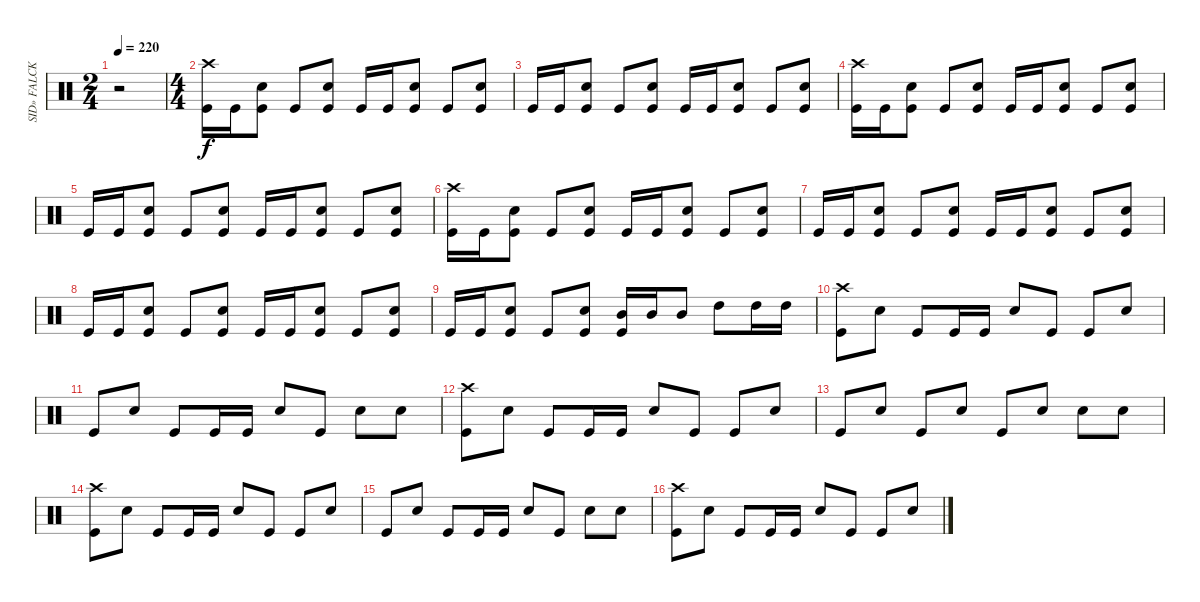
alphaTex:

\track ("SID» FALCK- Drums " "SID» FALCK") {instrument percussion}
\staff {score}
\articulation defaults
\ts (2 4)
\tempo 220
\clef neutral
\ks c
r.2{dy f} |
\ts (4 4)
("Crash high (hit)" "Kick (hit)").16 "Kick (hit)".16 ("Electric Snare (hit)" "Kick (hit)").8 "Kick (hit)".8 ("Electric Snare (hit)" "Kick (hit)").8 "Kick (hit)".16 "Kick (hit)".16 ("Electric Snare (hit)" "Kick (hit)").8 "Kick (hit)".8 ("Electric Snare (hit)" "Kick (hit)").8 |
"Kick (hit)".16 "Kick (hit)".16 ("Electric Snare (hit)" "Kick (hit)").8 "Kick (hit)".8 ("Electric Snare (hit)" "Kick (hit)").8 "Kick (hit)".16 "Kick (hit)".16 ("Electric Snare (hit)" "Kick (hit)").8 "Kick (hit)".8 ("Electric Snare (hit)" "Kick (hit)").8 |
("Crash high (hit)" "Kick (hit)").16 "Kick (hit)".16 ("Electric Snare (hit)" "Kick (hit)").8 "Kick (hit)".8 ("Electric Snare (hit)" "Kick (hit)").8 "Kick (hit)".16 "Kick (hit)".16 ("Electric Snare (hit)" "Kick (hit)").8 "Kick (hit)".8 ("Electric Snare (hit)" "Kick (hit)").8 |
"Kick (hit)".16 "Kick (hit)".16 ("Electric Snare (hit)" "Kick (hit)").8 "Kick (hit)".8 ("Electric Snare (hit)" "Kick (hit)").8 "Kick (hit)".16 "Kick (hit)".16 ("Electric Snare (hit)" "Kick (hit)").8 "Kick (hit)".8 ("Electric Snare (hit)" "Kick (hit)").8 |
("Crash high (hit)" "Kick (hit)").16 "Kick (hit)".16 ("Electric Snare (hit)" "Kick (hit)").8 "Kick (hit)".8 ("Electric Snare (hit)" "Kick (hit)").8 "Kick (hit)".16 "Kick (hit)".16 ("Electric Snare (hit)" "Kick (hit)").8 "Kick (hit)".8 ("Electric Snare (hit)" "Kick (hit)").8 |
"Kick (hit)".16 "Kick (hit)".16 ("Electric Snare (hit)" "Kick (hit)").8 "Kick (hit)".8 ("Electric Snare (hit)" "Kick (hit)").8 "Kick (hit)".16 "Kick (hit)".16 ("Electric Snare (hit)" "Kick (hit)").8 "Kick (hit)".8 ("Electric Snare (hit)" "Kick (hit)").8 |
"Kick (hit)".16 "Kick (hit)".16 ("Electric Snare (hit)" "Kick (hit)").8 "Kick (hit)".8 ("Electric Snare (hit)" "Kick (hit)").8 "Kick (hit)".16 "Kick (hit)".16 ("Electric Snare (hit)" "Kick (hit)").8 "Kick (hit)".8 ("Electric Snare (hit)" "Kick (hit)").8 |
"Kick (hit)".16 "Kick (hit)".16 ("Electric Snare (hit)" "Kick (hit)").8 "Kick (hit)".8 ("Electric Snare (hit)" "Kick (hit)").8 ("Mid Tom (hit)" "Kick (hit)").16 "Mid Tom (hit)".16 "Mid Tom (hit)".8 "High Tom (hit)".8 "High Tom (hit)".16 "High Tom (hit)".16 |
("Crash high (hit)" "Kick (hit)").8 "Electric Snare (hit)".8 "Kick (hit)".8 "Kick (hit)".16 "Kick (hit)".16 "Electric Snare (hit)".8 "Kick (hit)".8 "Kick (hit)".8 "Electric Snare (hit)".8 |
"Kick (hit)".8 "Electric Snare (hit)".8 "Kick (hit)".8 "Kick (hit)".16 "Kick (hit)".16 "Electric Snare (hit)".8 "Kick (hit)".8 "Electric Snare (hit)".8 "Electric Snare (hit)".8 |
("Crash high (hit)" "Kick (hit)").8 "Electric Snare (hit)".8 "Kick (hit)".8 "Kick (hit)".16 "Kick (hit)".16 "Electric Snare (hit)".8 "Kick (hit)".8 "Kick (hit)".8 "Electric Snare (hit)".8 |
"Kick (hit)".8 "Electric Snare (hit)".8 "Kick (hit)".8 "Electric Snare (hit)".8 "Kick (hit)".8 "Electric Snare (hit)".8 "Electric Snare (hit)".8 "Electric Snare (hit)".8 |
("Crash high (hit)" "Kick (hit)").8 "Electric Snare (hit)".8 "Kick (hit)".8 "Kick (hit)".16 "Kick (hit)".16 "Electric Snare (hit)".8 "Kick (hit)".8 "Kick (hit)".8 "Electric Snare (hit)".8 |
"Kick (hit)".8 "Electric Snare (hit)".8 "Kick (hit)".8 "Kick (hit)".16 "Kick (hit)".16 "Electric Snare (hit)".8 "Kick (hit)".8 "Electric Snare (hit)".8 "Electric Snare (hit)".8 |
("Crash high (hit)" "Kick (hit)").8 "Electric Snare (hit)".8 "Kick (hit)".8 "Kick (hit)".16 "Kick (hit)".16 "Electric Snare (hit)".8 "Kick (hit)".8 "Kick (hit)".8 "Electric Snare (hit)".8
